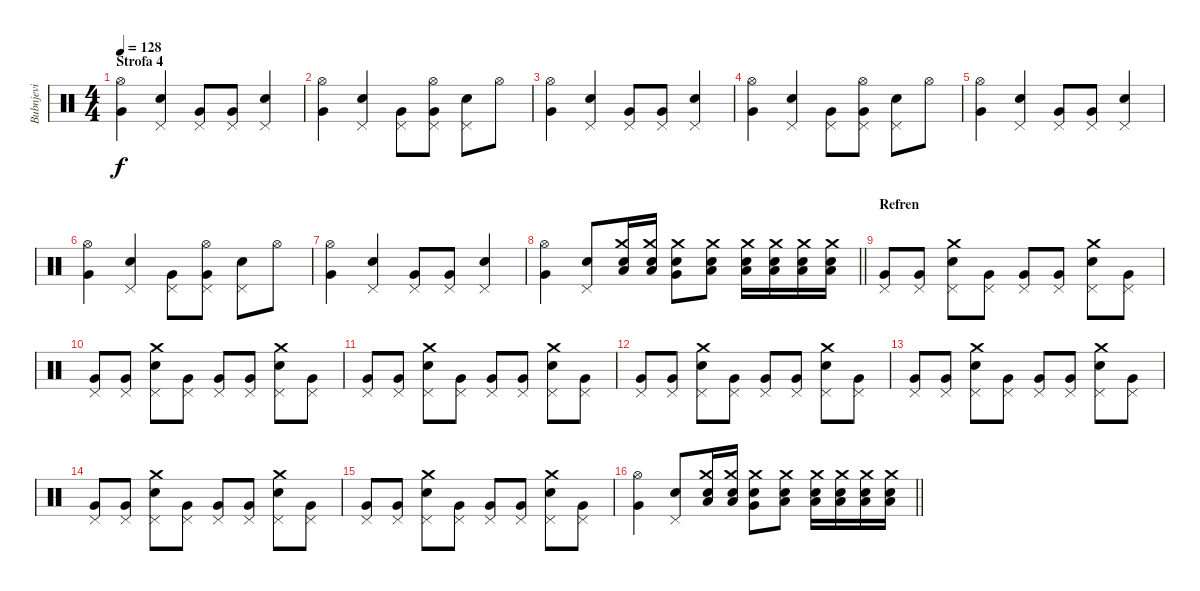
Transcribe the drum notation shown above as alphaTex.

\track ("Bubnjevi" "Bubnjevi") {instrument percussion}
\staff {score}
\articulation defaults
\ts (4 4)
\section ("" "Strofa 4")
\tempo 128
\clef neutral
\ks c
("Hi-Hat (open)" "Very Low Tom (hit)").4{dy f} ("Pedal Hi-Hat (hit)" "Electric Snare (hit)").4 ("Pedal Hi-Hat (hit)" "Very Low Tom (hit)").8 ("Pedal Hi-Hat (hit)" "Very Low Tom (hit)").8 ("Pedal Hi-Hat (hit)" "Electric Snare (hit)").4 |
("Hi-Hat (open)" "Very Low Tom (hit)").4 ("Pedal Hi-Hat (hit)" "Electric Snare (hit)").4 ("Pedal Hi-Hat (hit)" "Very Low Tom (hit)").8 ("Pedal Hi-Hat (hit)" "Hi-Hat (open)" "Very Low Tom (hit)").8 ("Pedal Hi-Hat (hit)" "Electric Snare (hit)").8 "Hi-Hat (open)".8 |
("Hi-Hat (open)" "Very Low Tom (hit)").4 ("Pedal Hi-Hat (hit)" "Electric Snare (hit)").4 ("Pedal Hi-Hat (hit)" "Very Low Tom (hit)").8 ("Pedal Hi-Hat (hit)" "Very Low Tom (hit)").8 ("Pedal Hi-Hat (hit)" "Electric Snare (hit)").4 |
("Hi-Hat (open)" "Very Low Tom (hit)").4 ("Pedal Hi-Hat (hit)" "Electric Snare (hit)").4 ("Pedal Hi-Hat (hit)" "Very Low Tom (hit)").8 ("Pedal Hi-Hat (hit)" "Hi-Hat (open)" "Very Low Tom (hit)").8 ("Pedal Hi-Hat (hit)" "Electric Snare (hit)").8 "Hi-Hat (open)".8 |
("Hi-Hat (open)" "Very Low Tom (hit)").4 ("Pedal Hi-Hat (hit)" "Electric Snare (hit)").4 ("Pedal Hi-Hat (hit)" "Very Low Tom (hit)").8 ("Pedal Hi-Hat (hit)" "Very Low Tom (hit)").8 ("Pedal Hi-Hat (hit)" "Electric Snare (hit)").4 |
("Hi-Hat (open)" "Very Low Tom (hit)").4 ("Pedal Hi-Hat (hit)" "Electric Snare (hit)").4 ("Pedal Hi-Hat (hit)" "Very Low Tom (hit)").8 ("Pedal Hi-Hat (hit)" "Hi-Hat (open)" "Very Low Tom (hit)").8 ("Pedal Hi-Hat (hit)" "Electric Snare (hit)").8 "Hi-Hat (open)".8 |
("Hi-Hat (open)" "Very Low Tom (hit)").4 ("Pedal Hi-Hat (hit)" "Electric Snare (hit)").4 ("Pedal Hi-Hat (hit)" "Very Low Tom (hit)").8 ("Pedal Hi-Hat (hit)" "Very Low Tom (hit)").8 ("Pedal Hi-Hat (hit)" "Electric Snare (hit)").4 |
\barLineRight lightlight
("Hi-Hat (open)" "Very Low Tom (hit)").4 ("Pedal Hi-Hat (hit)" "Electric Snare (hit)").8 ("Crash medium (hit)" "Electric Snare (hit)" "Low Tom (hit)").16 ("Crash medium (hit)" "Electric Snare (hit)" "Low Tom (hit)").16 ("Crash medium (hit)" "Electric Snare (hit)" "Very Low Tom (hit)").8 ("Crash medium (hit)" "Electric Snare (hit)" "Low Tom (hit)").8 ("Crash medium (hit)" "Electric Snare (hit)" "Low Tom (hit)").16 ("Crash medium (hit)" "Electric Snare (hit)" "Low Tom (hit)").16 ("Crash medium (hit)" "Electric Snare (hit)" "Low Tom (hit)").16 ("Crash medium (hit)" "Electric Snare (hit)" "Low Tom (hit)").16 |
\section ("" "Refren")
("Pedal Hi-Hat (hit)" "Very Low Tom (hit)").8 ("Pedal Hi-Hat (hit)" "Very Low Tom (hit)").8 ("Crash medium (hit)" "Pedal Hi-Hat (hit)" "Electric Snare (hit)").8 ("Pedal Hi-Hat (hit)" "Very Low Tom (hit)").8 ("Pedal Hi-Hat (hit)" "Very Low Tom (hit)").8 ("Pedal Hi-Hat (hit)" "Very Low Tom (hit)").8 ("Crash medium (hit)" "Pedal Hi-Hat (hit)" "Electric Snare (hit)").8 ("Pedal Hi-Hat (hit)" "Very Low Tom (hit)").8 |
("Pedal Hi-Hat (hit)" "Very Low Tom (hit)").8 ("Pedal Hi-Hat (hit)" "Very Low Tom (hit)").8 ("Crash medium (hit)" "Pedal Hi-Hat (hit)" "Electric Snare (hit)").8 ("Pedal Hi-Hat (hit)" "Very Low Tom (hit)").8 ("Pedal Hi-Hat (hit)" "Very Low Tom (hit)").8 ("Pedal Hi-Hat (hit)" "Very Low Tom (hit)").8 ("Crash medium (hit)" "Pedal Hi-Hat (hit)" "Electric Snare (hit)").8 ("Pedal Hi-Hat (hit)" "Very Low Tom (hit)").8 |
("Pedal Hi-Hat (hit)" "Very Low Tom (hit)").8 ("Pedal Hi-Hat (hit)" "Very Low Tom (hit)").8 ("Crash medium (hit)" "Pedal Hi-Hat (hit)" "Electric Snare (hit)").8 ("Pedal Hi-Hat (hit)" "Very Low Tom (hit)").8 ("Pedal Hi-Hat (hit)" "Very Low Tom (hit)").8 ("Pedal Hi-Hat (hit)" "Very Low Tom (hit)").8 ("Crash medium (hit)" "Pedal Hi-Hat (hit)" "Electric Snare (hit)").8 ("Pedal Hi-Hat (hit)" "Very Low Tom (hit)").8 |
("Pedal Hi-Hat (hit)" "Very Low Tom (hit)").8 ("Pedal Hi-Hat (hit)" "Very Low Tom (hit)").8 ("Crash medium (hit)" "Pedal Hi-Hat (hit)" "Electric Snare (hit)").8 ("Pedal Hi-Hat (hit)" "Very Low Tom (hit)").8 ("Pedal Hi-Hat (hit)" "Very Low Tom (hit)").8 ("Pedal Hi-Hat (hit)" "Very Low Tom (hit)").8 ("Crash medium (hit)" "Pedal Hi-Hat (hit)" "Electric Snare (hit)").8 ("Pedal Hi-Hat (hit)" "Very Low Tom (hit)").8 |
("Pedal Hi-Hat (hit)" "Very Low Tom (hit)").8 ("Pedal Hi-Hat (hit)" "Very Low Tom (hit)").8 ("Crash medium (hit)" "Pedal Hi-Hat (hit)" "Electric Snare (hit)").8 ("Pedal Hi-Hat (hit)" "Very Low Tom (hit)").8 ("Pedal Hi-Hat (hit)" "Very Low Tom (hit)").8 ("Pedal Hi-Hat (hit)" "Very Low Tom (hit)").8 ("Crash medium (hit)" "Pedal Hi-Hat (hit)" "Electric Snare (hit)").8 ("Pedal Hi-Hat (hit)" "Very Low Tom (hit)").8 |
("Pedal Hi-Hat (hit)" "Very Low Tom (hit)").8 ("Pedal Hi-Hat (hit)" "Very Low Tom (hit)").8 ("Crash medium (hit)" "Pedal Hi-Hat (hit)" "Electric Snare (hit)").8 ("Pedal Hi-Hat (hit)" "Very Low Tom (hit)").8 ("Pedal Hi-Hat (hit)" "Very Low Tom (hit)").8 ("Pedal Hi-Hat (hit)" "Very Low Tom (hit)").8 ("Crash medium (hit)" "Pedal Hi-Hat (hit)" "Electric Snare (hit)").8 ("Pedal Hi-Hat (hit)" "Very Low Tom (hit)").8 |
("Pedal Hi-Hat (hit)" "Very Low Tom (hit)").8 ("Pedal Hi-Hat (hit)" "Very Low Tom (hit)").8 ("Crash medium (hit)" "Pedal Hi-Hat (hit)" "Electric Snare (hit)").8 ("Pedal Hi-Hat (hit)" "Very Low Tom (hit)").8 ("Pedal Hi-Hat (hit)" "Very Low Tom (hit)").8 ("Pedal Hi-Hat (hit)" "Very Low Tom (hit)").8 ("Crash medium (hit)" "Pedal Hi-Hat (hit)" "Electric Snare (hit)").8 ("Pedal Hi-Hat (hit)" "Very Low Tom (hit)").8 |
\barLineRight lightlight
("Hi-Hat (open)" "Very Low Tom (hit)").4 ("Pedal Hi-Hat (hit)" "Electric Snare (hit)").8 ("Crash medium (hit)" "Electric Snare (hit)" "Low Tom (hit)").16 ("Crash medium (hit)" "Electric Snare (hit)" "Low Tom (hit)").16 ("Crash medium (hit)" "Electric Snare (hit)" "Very Low Tom (hit)").8 ("Crash medium (hit)" "Electric Snare (hit)" "Low Tom (hit)").8 ("Crash medium (hit)" "Electric Snare (hit)" "Low Tom (hit)").16 ("Crash medium (hit)" "Electric Snare (hit)" "Low Tom (hit)").16 ("Crash medium (hit)" "Electric Snare (hit)" "Low Tom (hit)").16 ("Crash medium (hit)" "Electric Snare (hit)" "Low Tom (hit)").16
